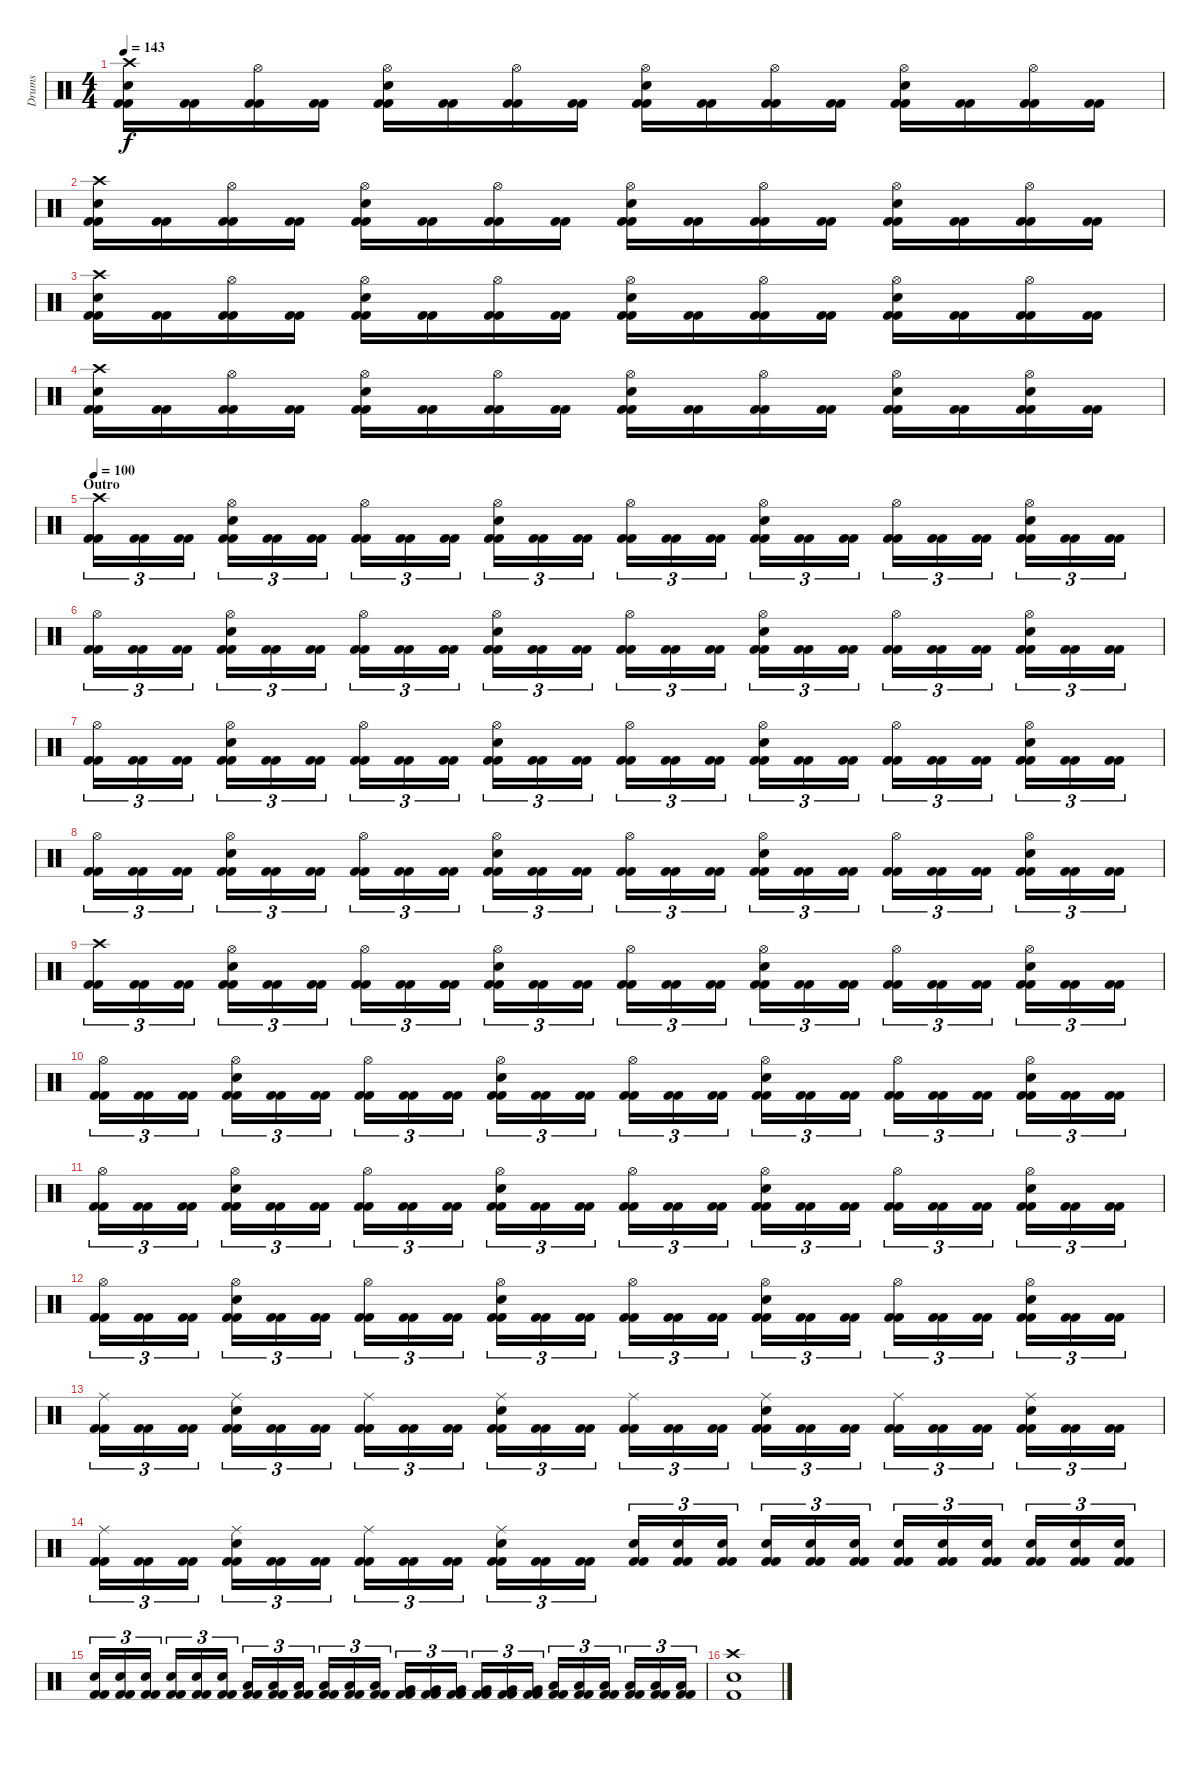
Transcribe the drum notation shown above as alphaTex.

\track ("Drums" "Drums") {instrument percussion}
\staff {score}
\articulation defaults
\ts (4 4)
\tempo 143
\clef neutral
\ks c
("Kick (hit) 2" "Kick (hit) 2" "Electric Snare (hit)" "Crash high (hit)").16{dy f} ("Kick (hit) 2" "Kick (hit) 2").16 ("Kick (hit) 2" "Kick (hit) 2" "Hi-Hat (open)").16 ("Kick (hit) 2" "Kick (hit) 2").16 ("Kick (hit) 2" "Kick (hit) 2" "Electric Snare (hit)" "Hi-Hat (open)").16 ("Kick (hit) 2" "Kick (hit) 2").16 ("Kick (hit) 2" "Kick (hit) 2" "Hi-Hat (open)").16 ("Kick (hit) 2" "Kick (hit) 2").16 ("Kick (hit) 2" "Kick (hit) 2" "Electric Snare (hit)" "Hi-Hat (open)").16 ("Kick (hit) 2" "Kick (hit) 2").16 ("Kick (hit) 2" "Kick (hit) 2" "Hi-Hat (open)").16 ("Kick (hit) 2" "Kick (hit) 2").16 ("Kick (hit) 2" "Kick (hit) 2" "Electric Snare (hit)" "Hi-Hat (open)").16 ("Kick (hit) 2" "Kick (hit) 2").16 ("Kick (hit) 2" "Kick (hit) 2" "Hi-Hat (open)").16 ("Kick (hit) 2" "Kick (hit) 2").16 |
("Kick (hit) 2" "Kick (hit) 2" "Electric Snare (hit)" "Crash high (hit)").16 ("Kick (hit) 2" "Kick (hit) 2").16 ("Kick (hit) 2" "Kick (hit) 2" "Hi-Hat (open)").16 ("Kick (hit) 2" "Kick (hit) 2").16 ("Kick (hit) 2" "Kick (hit) 2" "Electric Snare (hit)" "Hi-Hat (open)").16 ("Kick (hit) 2" "Kick (hit) 2").16 ("Kick (hit) 2" "Kick (hit) 2" "Hi-Hat (open)").16 ("Kick (hit) 2" "Kick (hit) 2").16 ("Kick (hit) 2" "Kick (hit) 2" "Electric Snare (hit)" "Hi-Hat (open)").16 ("Kick (hit) 2" "Kick (hit) 2").16 ("Kick (hit) 2" "Kick (hit) 2" "Hi-Hat (open)").16 ("Kick (hit) 2" "Kick (hit) 2").16 ("Kick (hit) 2" "Kick (hit) 2" "Electric Snare (hit)" "Hi-Hat (open)").16 ("Kick (hit) 2" "Kick (hit) 2").16 ("Kick (hit) 2" "Kick (hit) 2" "Hi-Hat (open)").16 ("Kick (hit) 2" "Kick (hit) 2").16 |
("Kick (hit) 2" "Kick (hit) 2" "Electric Snare (hit)" "Crash high (hit)").16 ("Kick (hit) 2" "Kick (hit) 2").16 ("Kick (hit) 2" "Kick (hit) 2" "Hi-Hat (open)").16 ("Kick (hit) 2" "Kick (hit) 2").16 ("Kick (hit) 2" "Kick (hit) 2" "Electric Snare (hit)" "Hi-Hat (open)").16 ("Kick (hit) 2" "Kick (hit) 2").16 ("Kick (hit) 2" "Kick (hit) 2" "Hi-Hat (open)").16 ("Kick (hit) 2" "Kick (hit) 2").16 ("Kick (hit) 2" "Kick (hit) 2" "Electric Snare (hit)" "Hi-Hat (open)").16 ("Kick (hit) 2" "Kick (hit) 2").16 ("Kick (hit) 2" "Kick (hit) 2" "Hi-Hat (open)").16 ("Kick (hit) 2" "Kick (hit) 2").16 ("Kick (hit) 2" "Kick (hit) 2" "Electric Snare (hit)" "Hi-Hat (open)").16 ("Kick (hit) 2" "Kick (hit) 2").16 ("Kick (hit) 2" "Kick (hit) 2" "Hi-Hat (open)").16 ("Kick (hit) 2" "Kick (hit) 2").16 |
("Kick (hit) 2" "Kick (hit) 2" "Electric Snare (hit)" "Crash high (hit)").16 ("Kick (hit) 2" "Kick (hit) 2").16 ("Kick (hit) 2" "Kick (hit) 2" "Hi-Hat (open)").16 ("Kick (hit) 2" "Kick (hit) 2").16 ("Kick (hit) 2" "Kick (hit) 2" "Electric Snare (hit)" "Hi-Hat (open)").16 ("Kick (hit) 2" "Kick (hit) 2").16 ("Kick (hit) 2" "Kick (hit) 2" "Hi-Hat (open)").16 ("Kick (hit) 2" "Kick (hit) 2").16 ("Kick (hit) 2" "Kick (hit) 2" "Electric Snare (hit)" "Hi-Hat (open)").16 ("Kick (hit) 2" "Kick (hit) 2").16 ("Kick (hit) 2" "Kick (hit) 2" "Hi-Hat (open)").16 ("Kick (hit) 2" "Kick (hit) 2").16 ("Kick (hit) 2" "Kick (hit) 2" "Electric Snare (hit)" "Hi-Hat (open)").16 ("Kick (hit) 2" "Kick (hit) 2").16 ("Kick (hit) 2" "Kick (hit) 2" "Electric Snare (hit)" "Hi-Hat (open)").16 ("Kick (hit) 2" "Kick (hit) 2").16 |
\section ("" "Outro")
\tempo 100
("Kick (hit) 2" "Kick (hit) 2" "Crash high (hit)").16{tu (3 2)} ("Kick (hit) 2" "Kick (hit) 2").16{tu (3 2)} ("Kick (hit) 2" "Kick (hit) 2").16{tu (3 2)} ("Kick (hit) 2" "Kick (hit) 2" "Electric Snare (hit)" "Hi-Hat (open)").16{tu (3 2)} ("Kick (hit) 2" "Kick (hit) 2").16{tu (3 2)} ("Kick (hit) 2" "Kick (hit) 2").16{tu (3 2)} ("Kick (hit) 2" "Kick (hit) 2" "Hi-Hat (open)").16{tu (3 2)} ("Kick (hit) 2" "Kick (hit) 2").16{tu (3 2)} ("Kick (hit) 2" "Kick (hit) 2").16{tu (3 2)} ("Kick (hit) 2" "Kick (hit) 2" "Electric Snare (hit)" "Hi-Hat (open)").16{tu (3 2)} ("Kick (hit) 2" "Kick (hit) 2").16{tu (3 2)} ("Kick (hit) 2" "Kick (hit) 2").16{tu (3 2)} ("Kick (hit) 2" "Kick (hit) 2" "Hi-Hat (open)").16{tu (3 2)} ("Kick (hit) 2" "Kick (hit) 2").16{tu (3 2)} ("Kick (hit) 2" "Kick (hit) 2").16{tu (3 2)} ("Kick (hit) 2" "Kick (hit) 2" "Electric Snare (hit)" "Hi-Hat (open)").16{tu (3 2)} ("Kick (hit) 2" "Kick (hit) 2").16{tu (3 2)} ("Kick (hit) 2" "Kick (hit) 2").16{tu (3 2)} ("Kick (hit) 2" "Kick (hit) 2" "Hi-Hat (open)").16{tu (3 2)} ("Kick (hit) 2" "Kick (hit) 2").16{tu (3 2)} ("Kick (hit) 2" "Kick (hit) 2").16{tu (3 2)} ("Kick (hit) 2" "Kick (hit) 2" "Electric Snare (hit)" "Hi-Hat (open)").16{tu (3 2)} ("Kick (hit) 2" "Kick (hit) 2").16{tu (3 2)} ("Kick (hit) 2" "Kick (hit) 2").16{tu (3 2)} |
("Kick (hit) 2" "Kick (hit) 2" "Hi-Hat (open)").16{tu (3 2)} ("Kick (hit) 2" "Kick (hit) 2").16{tu (3 2)} ("Kick (hit) 2" "Kick (hit) 2").16{tu (3 2)} ("Kick (hit) 2" "Kick (hit) 2" "Electric Snare (hit)" "Hi-Hat (open)").16{tu (3 2)} ("Kick (hit) 2" "Kick (hit) 2").16{tu (3 2)} ("Kick (hit) 2" "Kick (hit) 2").16{tu (3 2)} ("Kick (hit) 2" "Kick (hit) 2" "Hi-Hat (open)").16{tu (3 2)} ("Kick (hit) 2" "Kick (hit) 2").16{tu (3 2)} ("Kick (hit) 2" "Kick (hit) 2").16{tu (3 2)} ("Kick (hit) 2" "Kick (hit) 2" "Electric Snare (hit)" "Hi-Hat (open)").16{tu (3 2)} ("Kick (hit) 2" "Kick (hit) 2").16{tu (3 2)} ("Kick (hit) 2" "Kick (hit) 2").16{tu (3 2)} ("Kick (hit) 2" "Kick (hit) 2" "Hi-Hat (open)").16{tu (3 2)} ("Kick (hit) 2" "Kick (hit) 2").16{tu (3 2)} ("Kick (hit) 2" "Kick (hit) 2").16{tu (3 2)} ("Kick (hit) 2" "Kick (hit) 2" "Electric Snare (hit)" "Hi-Hat (open)").16{tu (3 2)} ("Kick (hit) 2" "Kick (hit) 2").16{tu (3 2)} ("Kick (hit) 2" "Kick (hit) 2").16{tu (3 2)} ("Kick (hit) 2" "Kick (hit) 2" "Hi-Hat (open)").16{tu (3 2)} ("Kick (hit) 2" "Kick (hit) 2").16{tu (3 2)} ("Kick (hit) 2" "Kick (hit) 2").16{tu (3 2)} ("Kick (hit) 2" "Kick (hit) 2" "Electric Snare (hit)" "Hi-Hat (open)").16{tu (3 2)} ("Kick (hit) 2" "Kick (hit) 2").16{tu (3 2)} ("Kick (hit) 2" "Kick (hit) 2").16{tu (3 2)} |
("Kick (hit) 2" "Kick (hit) 2" "Hi-Hat (open)").16{tu (3 2)} ("Kick (hit) 2" "Kick (hit) 2").16{tu (3 2)} ("Kick (hit) 2" "Kick (hit) 2").16{tu (3 2)} ("Kick (hit) 2" "Kick (hit) 2" "Electric Snare (hit)" "Hi-Hat (open)").16{tu (3 2)} ("Kick (hit) 2" "Kick (hit) 2").16{tu (3 2)} ("Kick (hit) 2" "Kick (hit) 2").16{tu (3 2)} ("Kick (hit) 2" "Kick (hit) 2" "Hi-Hat (open)").16{tu (3 2)} ("Kick (hit) 2" "Kick (hit) 2").16{tu (3 2)} ("Kick (hit) 2" "Kick (hit) 2").16{tu (3 2)} ("Kick (hit) 2" "Kick (hit) 2" "Electric Snare (hit)" "Hi-Hat (open)").16{tu (3 2)} ("Kick (hit) 2" "Kick (hit) 2").16{tu (3 2)} ("Kick (hit) 2" "Kick (hit) 2").16{tu (3 2)} ("Kick (hit) 2" "Kick (hit) 2" "Hi-Hat (open)").16{tu (3 2)} ("Kick (hit) 2" "Kick (hit) 2").16{tu (3 2)} ("Kick (hit) 2" "Kick (hit) 2").16{tu (3 2)} ("Kick (hit) 2" "Kick (hit) 2" "Electric Snare (hit)" "Hi-Hat (open)").16{tu (3 2)} ("Kick (hit) 2" "Kick (hit) 2").16{tu (3 2)} ("Kick (hit) 2" "Kick (hit) 2").16{tu (3 2)} ("Kick (hit) 2" "Kick (hit) 2" "Hi-Hat (open)").16{tu (3 2)} ("Kick (hit) 2" "Kick (hit) 2").16{tu (3 2)} ("Kick (hit) 2" "Kick (hit) 2").16{tu (3 2)} ("Kick (hit) 2" "Kick (hit) 2" "Electric Snare (hit)" "Hi-Hat (open)").16{tu (3 2)} ("Kick (hit) 2" "Kick (hit) 2").16{tu (3 2)} ("Kick (hit) 2" "Kick (hit) 2").16{tu (3 2)} |
("Kick (hit) 2" "Kick (hit) 2" "Hi-Hat (open)").16{tu (3 2)} ("Kick (hit) 2" "Kick (hit) 2").16{tu (3 2)} ("Kick (hit) 2" "Kick (hit) 2").16{tu (3 2)} ("Kick (hit) 2" "Kick (hit) 2" "Electric Snare (hit)" "Hi-Hat (open)").16{tu (3 2)} ("Kick (hit) 2" "Kick (hit) 2").16{tu (3 2)} ("Kick (hit) 2" "Kick (hit) 2").16{tu (3 2)} ("Kick (hit) 2" "Kick (hit) 2" "Hi-Hat (open)").16{tu (3 2)} ("Kick (hit) 2" "Kick (hit) 2").16{tu (3 2)} ("Kick (hit) 2" "Kick (hit) 2").16{tu (3 2)} ("Kick (hit) 2" "Kick (hit) 2" "Electric Snare (hit)" "Hi-Hat (open)").16{tu (3 2)} ("Kick (hit) 2" "Kick (hit) 2").16{tu (3 2)} ("Kick (hit) 2" "Kick (hit) 2").16{tu (3 2)} ("Kick (hit) 2" "Kick (hit) 2" "Hi-Hat (open)").16{tu (3 2)} ("Kick (hit) 2" "Kick (hit) 2").16{tu (3 2)} ("Kick (hit) 2" "Kick (hit) 2").16{tu (3 2)} ("Kick (hit) 2" "Kick (hit) 2" "Electric Snare (hit)" "Hi-Hat (open)").16{tu (3 2)} ("Kick (hit) 2" "Kick (hit) 2").16{tu (3 2)} ("Kick (hit) 2" "Kick (hit) 2").16{tu (3 2)} ("Kick (hit) 2" "Kick (hit) 2" "Hi-Hat (open)").16{tu (3 2)} ("Kick (hit) 2" "Kick (hit) 2").16{tu (3 2)} ("Kick (hit) 2" "Kick (hit) 2").16{tu (3 2)} ("Kick (hit) 2" "Kick (hit) 2" "Electric Snare (hit)" "Hi-Hat (open)").16{tu (3 2)} ("Kick (hit) 2" "Kick (hit) 2").16{tu (3 2)} ("Kick (hit) 2" "Kick (hit) 2").16{tu (3 2)} |
("Kick (hit) 2" "Kick (hit) 2" "Crash high (hit)").16{tu (3 2)} ("Kick (hit) 2" "Kick (hit) 2").16{tu (3 2)} ("Kick (hit) 2" "Kick (hit) 2").16{tu (3 2)} ("Kick (hit) 2" "Kick (hit) 2" "Electric Snare (hit)" "Hi-Hat (open)").16{tu (3 2)} ("Kick (hit) 2" "Kick (hit) 2").16{tu (3 2)} ("Kick (hit) 2" "Kick (hit) 2").16{tu (3 2)} ("Kick (hit) 2" "Kick (hit) 2" "Hi-Hat (open)").16{tu (3 2)} ("Kick (hit) 2" "Kick (hit) 2").16{tu (3 2)} ("Kick (hit) 2" "Kick (hit) 2").16{tu (3 2)} ("Kick (hit) 2" "Kick (hit) 2" "Electric Snare (hit)" "Hi-Hat (open)").16{tu (3 2)} ("Kick (hit) 2" "Kick (hit) 2").16{tu (3 2)} ("Kick (hit) 2" "Kick (hit) 2").16{tu (3 2)} ("Kick (hit) 2" "Kick (hit) 2" "Hi-Hat (open)").16{tu (3 2)} ("Kick (hit) 2" "Kick (hit) 2").16{tu (3 2)} ("Kick (hit) 2" "Kick (hit) 2").16{tu (3 2)} ("Kick (hit) 2" "Kick (hit) 2" "Electric Snare (hit)" "Hi-Hat (open)").16{tu (3 2)} ("Kick (hit) 2" "Kick (hit) 2").16{tu (3 2)} ("Kick (hit) 2" "Kick (hit) 2").16{tu (3 2)} ("Kick (hit) 2" "Kick (hit) 2" "Hi-Hat (open)").16{tu (3 2)} ("Kick (hit) 2" "Kick (hit) 2").16{tu (3 2)} ("Kick (hit) 2" "Kick (hit) 2").16{tu (3 2)} ("Kick (hit) 2" "Kick (hit) 2" "Electric Snare (hit)" "Hi-Hat (open)").16{tu (3 2)} ("Kick (hit) 2" "Kick (hit) 2").16{tu (3 2)} ("Kick (hit) 2" "Kick (hit) 2").16{tu (3 2)} |
("Kick (hit) 2" "Kick (hit) 2" "Hi-Hat (open)").16{tu (3 2)} ("Kick (hit) 2" "Kick (hit) 2").16{tu (3 2)} ("Kick (hit) 2" "Kick (hit) 2").16{tu (3 2)} ("Kick (hit) 2" "Kick (hit) 2" "Electric Snare (hit)" "Hi-Hat (open)").16{tu (3 2)} ("Kick (hit) 2" "Kick (hit) 2").16{tu (3 2)} ("Kick (hit) 2" "Kick (hit) 2").16{tu (3 2)} ("Kick (hit) 2" "Kick (hit) 2" "Hi-Hat (open)").16{tu (3 2)} ("Kick (hit) 2" "Kick (hit) 2").16{tu (3 2)} ("Kick (hit) 2" "Kick (hit) 2").16{tu (3 2)} ("Kick (hit) 2" "Kick (hit) 2" "Electric Snare (hit)" "Hi-Hat (open)").16{tu (3 2)} ("Kick (hit) 2" "Kick (hit) 2").16{tu (3 2)} ("Kick (hit) 2" "Kick (hit) 2").16{tu (3 2)} ("Kick (hit) 2" "Kick (hit) 2" "Hi-Hat (open)").16{tu (3 2)} ("Kick (hit) 2" "Kick (hit) 2").16{tu (3 2)} ("Kick (hit) 2" "Kick (hit) 2").16{tu (3 2)} ("Kick (hit) 2" "Kick (hit) 2" "Electric Snare (hit)" "Hi-Hat (open)").16{tu (3 2)} ("Kick (hit) 2" "Kick (hit) 2").16{tu (3 2)} ("Kick (hit) 2" "Kick (hit) 2").16{tu (3 2)} ("Kick (hit) 2" "Kick (hit) 2" "Hi-Hat (open)").16{tu (3 2)} ("Kick (hit) 2" "Kick (hit) 2").16{tu (3 2)} ("Kick (hit) 2" "Kick (hit) 2").16{tu (3 2)} ("Kick (hit) 2" "Kick (hit) 2" "Electric Snare (hit)" "Hi-Hat (open)").16{tu (3 2)} ("Kick (hit) 2" "Kick (hit) 2").16{tu (3 2)} ("Kick (hit) 2" "Kick (hit) 2").16{tu (3 2)} |
("Kick (hit) 2" "Kick (hit) 2" "Hi-Hat (open)").16{tu (3 2)} ("Kick (hit) 2" "Kick (hit) 2").16{tu (3 2)} ("Kick (hit) 2" "Kick (hit) 2").16{tu (3 2)} ("Kick (hit) 2" "Kick (hit) 2" "Electric Snare (hit)" "Hi-Hat (open)").16{tu (3 2)} ("Kick (hit) 2" "Kick (hit) 2").16{tu (3 2)} ("Kick (hit) 2" "Kick (hit) 2").16{tu (3 2)} ("Kick (hit) 2" "Kick (hit) 2" "Hi-Hat (open)").16{tu (3 2)} ("Kick (hit) 2" "Kick (hit) 2").16{tu (3 2)} ("Kick (hit) 2" "Kick (hit) 2").16{tu (3 2)} ("Kick (hit) 2" "Kick (hit) 2" "Electric Snare (hit)" "Hi-Hat (open)").16{tu (3 2)} ("Kick (hit) 2" "Kick (hit) 2").16{tu (3 2)} ("Kick (hit) 2" "Kick (hit) 2").16{tu (3 2)} ("Kick (hit) 2" "Kick (hit) 2" "Hi-Hat (open)").16{tu (3 2)} ("Kick (hit) 2" "Kick (hit) 2").16{tu (3 2)} ("Kick (hit) 2" "Kick (hit) 2").16{tu (3 2)} ("Kick (hit) 2" "Kick (hit) 2" "Electric Snare (hit)" "Hi-Hat (open)").16{tu (3 2)} ("Kick (hit) 2" "Kick (hit) 2").16{tu (3 2)} ("Kick (hit) 2" "Kick (hit) 2").16{tu (3 2)} ("Kick (hit) 2" "Kick (hit) 2" "Hi-Hat (open)").16{tu (3 2)} ("Kick (hit) 2" "Kick (hit) 2").16{tu (3 2)} ("Kick (hit) 2" "Kick (hit) 2").16{tu (3 2)} ("Kick (hit) 2" "Kick (hit) 2" "Electric Snare (hit)" "Hi-Hat (open)").16{tu (3 2)} ("Kick (hit) 2" "Kick (hit) 2").16{tu (3 2)} ("Kick (hit) 2" "Kick (hit) 2").16{tu (3 2)} |
("Kick (hit) 2" "Kick (hit) 2" "Hi-Hat (open)").16{tu (3 2)} ("Kick (hit) 2" "Kick (hit) 2").16{tu (3 2)} ("Kick (hit) 2" "Kick (hit) 2").16{tu (3 2)} ("Kick (hit) 2" "Kick (hit) 2" "Electric Snare (hit)" "Hi-Hat (open)").16{tu (3 2)} ("Kick (hit) 2" "Kick (hit) 2").16{tu (3 2)} ("Kick (hit) 2" "Kick (hit) 2").16{tu (3 2)} ("Kick (hit) 2" "Kick (hit) 2" "Hi-Hat (open)").16{tu (3 2)} ("Kick (hit) 2" "Kick (hit) 2").16{tu (3 2)} ("Kick (hit) 2" "Kick (hit) 2").16{tu (3 2)} ("Kick (hit) 2" "Kick (hit) 2" "Electric Snare (hit)" "Hi-Hat (open)").16{tu (3 2)} ("Kick (hit) 2" "Kick (hit) 2").16{tu (3 2)} ("Kick (hit) 2" "Kick (hit) 2").16{tu (3 2)} ("Kick (hit) 2" "Kick (hit) 2" "Hi-Hat (open)").16{tu (3 2)} ("Kick (hit) 2" "Kick (hit) 2").16{tu (3 2)} ("Kick (hit) 2" "Kick (hit) 2").16{tu (3 2)} ("Kick (hit) 2" "Kick (hit) 2" "Electric Snare (hit)" "Hi-Hat (open)").16{tu (3 2)} ("Kick (hit) 2" "Kick (hit) 2").16{tu (3 2)} ("Kick (hit) 2" "Kick (hit) 2").16{tu (3 2)} ("Kick (hit) 2" "Kick (hit) 2" "Hi-Hat (open)").16{tu (3 2)} ("Kick (hit) 2" "Kick (hit) 2").16{tu (3 2)} ("Kick (hit) 2" "Kick (hit) 2").16{tu (3 2)} ("Kick (hit) 2" "Kick (hit) 2" "Electric Snare (hit)" "Hi-Hat (open)").16{tu (3 2)} ("Kick (hit) 2" "Kick (hit) 2").16{tu (3 2)} ("Kick (hit) 2" "Kick (hit) 2").16{tu (3 2)} |
("Kick (hit) 2" "Kick (hit) 2" "Ride (middle)").16{tu (3 2)} ("Kick (hit) 2" "Kick (hit) 2").16{tu (3 2)} ("Kick (hit) 2" "Kick (hit) 2").16{tu (3 2)} ("Kick (hit) 2" "Kick (hit) 2" "Electric Snare (hit)" "Ride (middle)").16{tu (3 2)} ("Kick (hit) 2" "Kick (hit) 2").16{tu (3 2)} ("Kick (hit) 2" "Kick (hit) 2").16{tu (3 2)} ("Kick (hit) 2" "Kick (hit) 2" "Ride (middle)").16{tu (3 2)} ("Kick (hit) 2" "Kick (hit) 2").16{tu (3 2)} ("Kick (hit) 2" "Kick (hit) 2").16{tu (3 2)} ("Kick (hit) 2" "Kick (hit) 2" "Electric Snare (hit)" "Ride (middle)").16{tu (3 2)} ("Kick (hit) 2" "Kick (hit) 2").16{tu (3 2)} ("Kick (hit) 2" "Kick (hit) 2").16{tu (3 2)} ("Kick (hit) 2" "Kick (hit) 2" "Ride (middle)").16{tu (3 2)} ("Kick (hit) 2" "Kick (hit) 2").16{tu (3 2)} ("Kick (hit) 2" "Kick (hit) 2").16{tu (3 2)} ("Kick (hit) 2" "Kick (hit) 2" "Electric Snare (hit)" "Ride (middle)").16{tu (3 2)} ("Kick (hit) 2" "Kick (hit) 2").16{tu (3 2)} ("Kick (hit) 2" "Kick (hit) 2").16{tu (3 2)} ("Kick (hit) 2" "Kick (hit) 2" "Ride (middle)").16{tu (3 2)} ("Kick (hit) 2" "Kick (hit) 2").16{tu (3 2)} ("Kick (hit) 2" "Kick (hit) 2").16{tu (3 2)} ("Kick (hit) 2" "Kick (hit) 2" "Electric Snare (hit)" "Ride (middle)").16{tu (3 2)} ("Kick (hit) 2" "Kick (hit) 2").16{tu (3 2)} ("Kick (hit) 2" "Kick (hit) 2").16{tu (3 2)} |
("Kick (hit) 2" "Kick (hit) 2" "Ride (middle)").16{tu (3 2)} ("Kick (hit) 2" "Kick (hit) 2").16{tu (3 2)} ("Kick (hit) 2" "Kick (hit) 2").16{tu (3 2)} ("Kick (hit) 2" "Kick (hit) 2" "Electric Snare (hit)" "Ride (middle)").16{tu (3 2)} ("Kick (hit) 2" "Kick (hit) 2").16{tu (3 2)} ("Kick (hit) 2" "Kick (hit) 2").16{tu (3 2)} ("Kick (hit) 2" "Kick (hit) 2" "Ride (middle)").16{tu (3 2)} ("Kick (hit) 2" "Kick (hit) 2").16{tu (3 2)} ("Kick (hit) 2" "Kick (hit) 2").16{tu (3 2)} ("Kick (hit) 2" "Kick (hit) 2" "Electric Snare (hit)" "Ride (middle)").16{tu (3 2)} ("Kick (hit) 2" "Kick (hit) 2").16{tu (3 2)} ("Kick (hit) 2" "Kick (hit) 2").16{tu (3 2)} ("Kick (hit) 2" "Kick (hit) 2" "Electric Snare (hit)").16{tu (3 2)} ("Kick (hit) 2" "Kick (hit) 2" "Electric Snare (hit)").16{tu (3 2)} ("Kick (hit) 2" "Kick (hit) 2" "Electric Snare (hit)").16{tu (3 2)} ("Kick (hit) 2" "Kick (hit) 2" "Electric Snare (hit)").16{tu (3 2)} ("Kick (hit) 2" "Kick (hit) 2" "Electric Snare (hit)").16{tu (3 2)} ("Kick (hit) 2" "Kick (hit) 2" "Electric Snare (hit)").16{tu (3 2)} ("Kick (hit) 2" "Kick (hit) 2" "Electric Snare (hit)").16{tu (3 2)} ("Kick (hit) 2" "Kick (hit) 2" "Electric Snare (hit)").16{tu (3 2)} ("Kick (hit) 2" "Kick (hit) 2" "Electric Snare (hit)").16{tu (3 2)} ("Kick (hit) 2" "Kick (hit) 2" "Electric Snare (hit)").16{tu (3 2)} ("Kick (hit) 2" "Kick (hit) 2" "Electric Snare (hit)").16{tu (3 2)} ("Kick (hit) 2" "Kick (hit) 2" "Electric Snare (hit)").16{tu (3 2)} |
("Kick (hit) 2" "Kick (hit) 2" "Electric Snare (hit)").16{tu (3 2)} ("Kick (hit) 2" "Kick (hit) 2" "Electric Snare (hit)").16{tu (3 2)} ("Kick (hit) 2" "Kick (hit) 2" "Electric Snare (hit)").16{tu (3 2)} ("Kick (hit) 2" "Kick (hit) 2" "Electric Snare (hit)").16{tu (3 2)} ("Kick (hit) 2" "Kick (hit) 2" "Electric Snare (hit)").16{tu (3 2)} ("Kick (hit) 2" "Kick (hit) 2" "Electric Snare (hit)").16{tu (3 2)} ("Kick (hit) 2" "Kick (hit) 2" "Low Tom (hit)").16{tu (3 2)} ("Kick (hit) 2" "Kick (hit) 2" "Low Tom (hit)").16{tu (3 2)} ("Kick (hit) 2" "Kick (hit) 2" "Low Tom (hit)").16{tu (3 2)} ("Kick (hit) 2" "Kick (hit) 2" "Low Tom (hit)").16{tu (3 2)} ("Kick (hit) 2" "Kick (hit) 2" "Low Tom (hit)").16{tu (3 2)} ("Kick (hit) 2" "Kick (hit) 2" "Low Tom (hit)").16{tu (3 2)} ("Kick (hit) 2" "Kick (hit) 2" "Very Low Tom (hit)").16{tu (3 2)} ("Kick (hit) 2" "Kick (hit) 2" "Very Low Tom (hit)").16{tu (3 2)} ("Kick (hit) 2" "Kick (hit) 2" "Very Low Tom (hit)").16{tu (3 2)} ("Kick (hit) 2" "Kick (hit) 2" "Very Low Tom (hit)").16{tu (3 2)} ("Kick (hit) 2" "Kick (hit) 2" "Very Low Tom (hit)").16{tu (3 2)} ("Kick (hit) 2" "Kick (hit) 2" "Very Low Tom (hit)").16{tu (3 2)} ("Kick (hit) 2" "Kick (hit) 2" "Low Floor Tom (hit)").16{tu (3 2)} ("Kick (hit) 2" "Kick (hit) 2" "Low Floor Tom (hit)").16{tu (3 2)} ("Kick (hit) 2" "Kick (hit) 2" "Low Floor Tom (hit)").16{tu (3 2)} ("Kick (hit) 2" "Kick (hit) 2" "Low Floor Tom (hit)").16{tu (3 2)} ("Kick (hit) 2" "Kick (hit) 2" "Low Floor Tom (hit)").16{tu (3 2)} ("Kick (hit) 2" "Kick (hit) 2" "Low Floor Tom (hit)").16{tu (3 2)} |
("Kick (hit) 2" "Electric Snare (hit)" "Crash high (hit)").1
